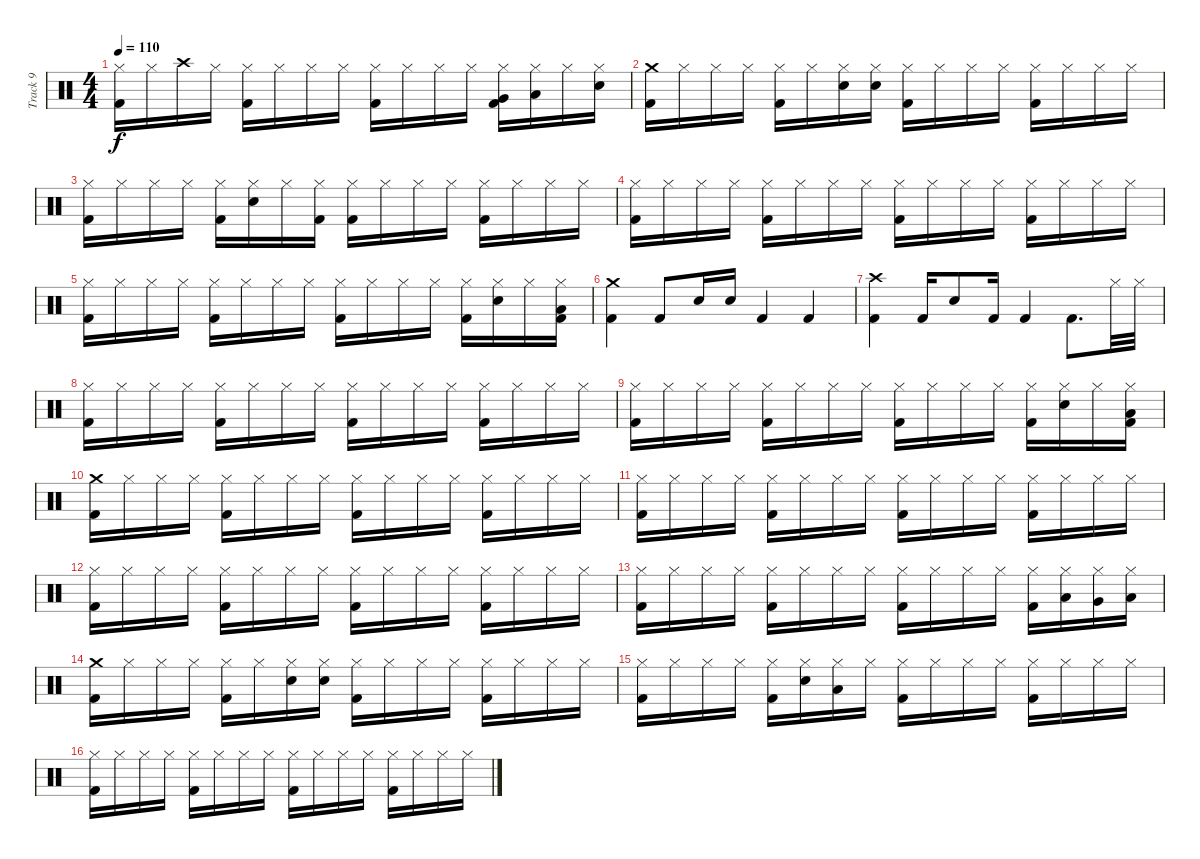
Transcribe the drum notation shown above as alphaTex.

\track ("Track 9" "Track 9") {instrument percussion}
\staff {score}
\articulation defaults
\ts (4 4)
\tempo 110
\clef neutral
\ks c
("Hi-Hat (closed)" "Kick (hit) 2").16{dy f} "Hi-Hat (closed)".16 "Crash high (hit)".16 "Hi-Hat (closed)".16 ("Hi-Hat (closed)" "Kick (hit) 2").16 "Hi-Hat (closed)".16 "Hi-Hat (closed)".16 "Hi-Hat (closed)".16 ("Hi-Hat (closed)" "Kick (hit) 2").16 "Hi-Hat (closed)".16 "Hi-Hat (closed)".16 "Hi-Hat (closed)".16 ("Hi-Hat (closed)" "Very Low Tom (hit)" "Kick (hit) 2").16 ("Hi-Hat (closed)" "Low Floor Tom (hit)").16 "Hi-Hat (closed)".16 ("Hi-Hat (closed)" "Snare (hit) 2").16 |
("Crash medium (hit)" "Kick (hit) 2").16 "Hi-Hat (closed)".16 "Hi-Hat (closed)".16 "Hi-Hat (closed)".16 ("Hi-Hat (closed)" "Kick (hit) 2").16 "Hi-Hat (closed)".16 ("Hi-Hat (closed)" "Snare (hit) 2").16 ("Hi-Hat (closed)" "Snare (hit) 2").16 ("Hi-Hat (closed)" "Kick (hit) 2").16 "Hi-Hat (closed)".16 "Hi-Hat (closed)".16 "Hi-Hat (closed)".16 ("Hi-Hat (closed)" "Kick (hit) 2").16 "Hi-Hat (closed)".16 "Hi-Hat (closed)".16 "Hi-Hat (closed)".16 |
("Hi-Hat (closed)" "Kick (hit) 2").16 "Hi-Hat (closed)".16 "Hi-Hat (closed)".16 "Hi-Hat (closed)".16 ("Hi-Hat (closed)" "Kick (hit) 2").16 ("Hi-Hat (closed)" "Snare (hit) 2").16 "Hi-Hat (closed)".16 ("Hi-Hat (closed)" "Kick (hit) 2").16 ("Hi-Hat (closed)" "Kick (hit) 2").16 "Hi-Hat (closed)".16 "Hi-Hat (closed)".16 "Hi-Hat (closed)".16 ("Hi-Hat (closed)" "Kick (hit) 2").16 "Hi-Hat (closed)".16 "Hi-Hat (closed)".16 "Hi-Hat (closed)".16 |
("Hi-Hat (closed)" "Kick (hit) 2").16 "Hi-Hat (closed)".16 "Hi-Hat (closed)".16 "Hi-Hat (closed)".16 ("Hi-Hat (closed)" "Kick (hit) 2").16 "Hi-Hat (closed)".16 "Hi-Hat (closed)".16 "Hi-Hat (closed)".16 ("Hi-Hat (closed)" "Kick (hit) 2").16 "Hi-Hat (closed)".16 "Hi-Hat (closed)".16 "Hi-Hat (closed)".16 ("Hi-Hat (closed)" "Kick (hit) 2").16 "Hi-Hat (closed)".16 "Hi-Hat (closed)".16 "Hi-Hat (closed)".16 |
("Hi-Hat (closed)" "Kick (hit) 2").16 "Hi-Hat (closed)".16 "Hi-Hat (closed)".16 "Hi-Hat (closed)".16 ("Hi-Hat (closed)" "Kick (hit) 2").16 "Hi-Hat (closed)".16 "Hi-Hat (closed)".16 "Hi-Hat (closed)".16 ("Hi-Hat (closed)" "Kick (hit) 2").16 "Hi-Hat (closed)".16 "Hi-Hat (closed)".16 "Hi-Hat (closed)".16 ("Hi-Hat (closed)" "Kick (hit) 2").16 ("Hi-Hat (closed)" "Snare (hit) 2").16 "Hi-Hat (closed)".16 ("Hi-Hat (closed)" "Low Floor Tom (hit)" "Kick (hit) 2").16 |
("Crash medium (hit)" "Kick (hit) 2").4 "Kick (hit) 2".8 "Snare (hit) 2".16 "Snare (hit) 2".16 "Kick (hit) 2".4 "Kick (hit) 2".4 |
("Crash high (hit)" "Kick (hit) 2").4 "Kick (hit) 2".16 "Snare (hit) 2".8 "Kick (hit) 2".16 "Kick (hit) 2".4 "Kick (hit) 2".8{d} "Hi-Hat (closed)".32 "Hi-Hat (closed)".32 |
("Hi-Hat (closed)" "Kick (hit) 2").16 "Hi-Hat (closed)".16 "Hi-Hat (closed)".16 "Hi-Hat (closed)".16 ("Hi-Hat (closed)" "Kick (hit) 2").16 "Hi-Hat (closed)".16 "Hi-Hat (closed)".16 "Hi-Hat (closed)".16 ("Hi-Hat (closed)" "Kick (hit) 2").16 "Hi-Hat (closed)".16 "Hi-Hat (closed)".16 "Hi-Hat (closed)".16 ("Hi-Hat (closed)" "Kick (hit) 2").16 "Hi-Hat (closed)".16 "Hi-Hat (closed)".16 "Hi-Hat (closed)".16 |
("Hi-Hat (closed)" "Kick (hit) 2").16 "Hi-Hat (closed)".16 "Hi-Hat (closed)".16 "Hi-Hat (closed)".16 ("Hi-Hat (closed)" "Kick (hit) 2").16 "Hi-Hat (closed)".16 "Hi-Hat (closed)".16 "Hi-Hat (closed)".16 ("Hi-Hat (closed)" "Kick (hit) 2").16 "Hi-Hat (closed)".16 "Hi-Hat (closed)".16 "Hi-Hat (closed)".16 ("Hi-Hat (closed)" "Kick (hit) 2").16 ("Hi-Hat (closed)" "Snare (hit) 2").16 "Hi-Hat (closed)".16 ("Hi-Hat (closed)" "Low Floor Tom (hit)" "Kick (hit) 2").16 |
("Crash medium (hit)" "Kick (hit) 2").16 "Hi-Hat (closed)".16 "Hi-Hat (closed)".16 "Hi-Hat (closed)".16 ("Hi-Hat (closed)" "Kick (hit) 2").16 "Hi-Hat (closed)".16 "Hi-Hat (closed)".16 "Hi-Hat (closed)".16 ("Hi-Hat (closed)" "Kick (hit) 2").16 "Hi-Hat (closed)".16 "Hi-Hat (closed)".16 "Hi-Hat (closed)".16 ("Hi-Hat (closed)" "Kick (hit) 2").16 "Hi-Hat (closed)".16 "Hi-Hat (closed)".16 "Hi-Hat (closed)".16 |
("Hi-Hat (closed)" "Kick (hit) 2").16 "Hi-Hat (closed)".16 "Hi-Hat (closed)".16 "Hi-Hat (closed)".16 ("Hi-Hat (closed)" "Kick (hit) 2").16 "Hi-Hat (closed)".16 "Hi-Hat (closed)".16 "Hi-Hat (closed)".16 ("Hi-Hat (closed)" "Kick (hit) 2").16 "Hi-Hat (closed)".16 "Hi-Hat (closed)".16 "Hi-Hat (closed)".16 ("Hi-Hat (closed)" "Kick (hit) 2").16 "Hi-Hat (closed)".16 "Hi-Hat (closed)".16 "Hi-Hat (closed)".16 |
("Hi-Hat (closed)" "Kick (hit) 2").16 "Hi-Hat (closed)".16 "Hi-Hat (closed)".16 "Hi-Hat (closed)".16 ("Hi-Hat (closed)" "Kick (hit) 2").16 "Hi-Hat (closed)".16 "Hi-Hat (closed)".16 "Hi-Hat (closed)".16 ("Hi-Hat (closed)" "Kick (hit) 2").16 "Hi-Hat (closed)".16 "Hi-Hat (closed)".16 "Hi-Hat (closed)".16 ("Hi-Hat (closed)" "Kick (hit) 2").16 "Hi-Hat (closed)".16 "Hi-Hat (closed)".16 "Hi-Hat (closed)".16 |
("Hi-Hat (closed)" "Kick (hit) 2").16 "Hi-Hat (closed)".16 "Hi-Hat (closed)".16 "Hi-Hat (closed)".16 ("Hi-Hat (closed)" "Kick (hit) 2").16 "Hi-Hat (closed)".16 "Hi-Hat (closed)".16 "Hi-Hat (closed)".16 ("Hi-Hat (closed)" "Kick (hit) 2").16 "Hi-Hat (closed)".16 "Hi-Hat (closed)".16 "Hi-Hat (closed)".16 ("Hi-Hat (closed)" "Kick (hit) 2").16 ("Hi-Hat (closed)" "Low Tom (hit)").16 ("Hi-Hat (closed)" "Very Low Tom (hit)").16 ("Hi-Hat (closed)" "Low Floor Tom (hit)").16 |
("Crash medium (hit)" "Kick (hit) 2").16 "Hi-Hat (closed)".16 "Hi-Hat (closed)".16 "Hi-Hat (closed)".16 ("Hi-Hat (closed)" "Kick (hit) 2").16 "Hi-Hat (closed)".16 ("Hi-Hat (closed)" "Snare (hit) 2").16 ("Hi-Hat (closed)" "Snare (hit) 2").16 ("Hi-Hat (closed)" "Kick (hit) 2").16 "Hi-Hat (closed)".16 "Hi-Hat (closed)".16 "Hi-Hat (closed)".16 ("Hi-Hat (closed)" "Kick (hit) 2").16 "Hi-Hat (closed)".16 "Hi-Hat (closed)".16 "Hi-Hat (closed)".16 |
("Hi-Hat (closed)" "Kick (hit) 2").16 "Hi-Hat (closed)".16 "Hi-Hat (closed)".16 "Hi-Hat (closed)".16 ("Hi-Hat (closed)" "Kick (hit) 2").16 ("Hi-Hat (closed)" "Snare (hit) 2").16 ("Hi-Hat (closed)" "Low Floor Tom (hit)").16 "Hi-Hat (closed)".16 ("Hi-Hat (closed)" "Kick (hit) 2").16 "Hi-Hat (closed)".16 "Hi-Hat (closed)".16 "Hi-Hat (closed)".16 ("Hi-Hat (closed)" "Kick (hit) 2").16 "Hi-Hat (closed)".16 "Hi-Hat (closed)".16 "Hi-Hat (closed)".16 |
("Hi-Hat (closed)" "Kick (hit) 2").16 "Hi-Hat (closed)".16 "Hi-Hat (closed)".16 "Hi-Hat (closed)".16 ("Hi-Hat (closed)" "Kick (hit) 2").16 "Hi-Hat (closed)".16 "Hi-Hat (closed)".16 "Hi-Hat (closed)".16 ("Hi-Hat (closed)" "Kick (hit) 2").16 "Hi-Hat (closed)".16 "Hi-Hat (closed)".16 "Hi-Hat (closed)".16 ("Hi-Hat (closed)" "Kick (hit) 2").16 "Hi-Hat (closed)".16 "Hi-Hat (closed)".16 "Hi-Hat (closed)".16
